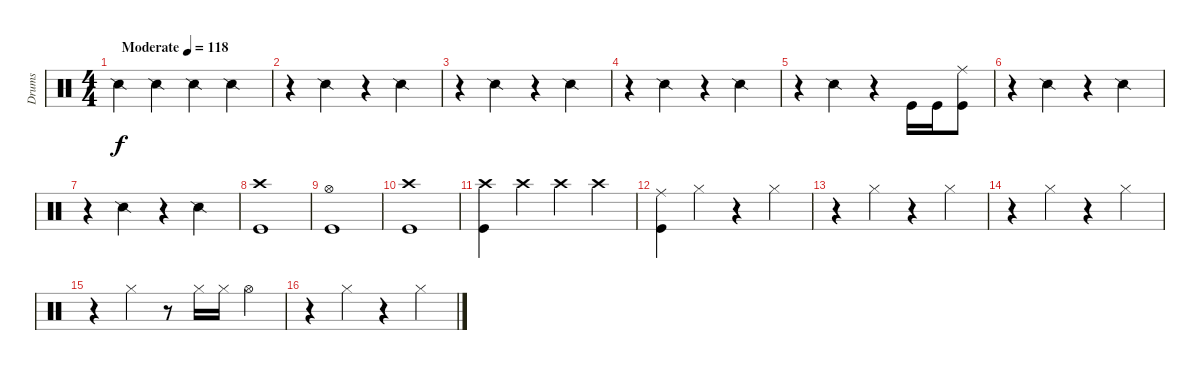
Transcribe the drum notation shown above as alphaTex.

\track ("Drums" "Drums") {instrument percussion}
\staff {score}
\articulation defaults
\ts (4 4)
\tempo (118 "Moderate")
\clef neutral
\ks c "Snare (side stick) 2".4{dy f} "Snare (side stick) 2".4 "Snare (side stick) 2".4 "Snare (side stick) 2".4
|
r.4 "Snare (side stick) 2".4 r.4 "Snare (side stick) 2".4 |
r.4 "Snare (side stick) 2".4 r.4 "Snare (side stick) 2".4 |
r.4 "Snare (side stick) 2".4 r.4 "Snare (side stick) 2".4 |
r.4 "Snare (side stick) 2".4 r.4 "Kick (hit)".16 "Kick (hit)".16 ("Ride (middle)" "Kick (hit)").8 |
r.4 "Snare (side stick) 2".4 r.4 "Snare (side stick) 2".4 |
r.4 "Snare (side stick) 2".4 r.4 "Snare (side stick) 2".4 |
("Crash high (hit)" "Kick (hit)").1 |
("Hi-Hat (open)" "Kick (hit)").1 |
("Crash high (hit)" "Kick (hit)").1 |
("Crash high (hit)" "Kick (hit)").4 "Crash high (hit)".4 "Crash high (hit)".4 "Crash high (hit)".4 |
("Ride (middle)" "Kick (hit)").4 "Hi-Hat (closed)".4 r.4 "Hi-Hat (closed)".4 |
r.4 "Hi-Hat (closed)".4 r.4 "Hi-Hat (closed)".4 |
r.4 "Hi-Hat (closed)".4 r.4 "Hi-Hat (closed)".4 |
r.4 "Hi-Hat (closed)".4 r.8 "Hi-Hat (closed)".16 "Hi-Hat (closed)".16 "Hi-Hat (open)".4 |
r.4 "Hi-Hat (closed)".4 r.4 "Hi-Hat (closed)".4
